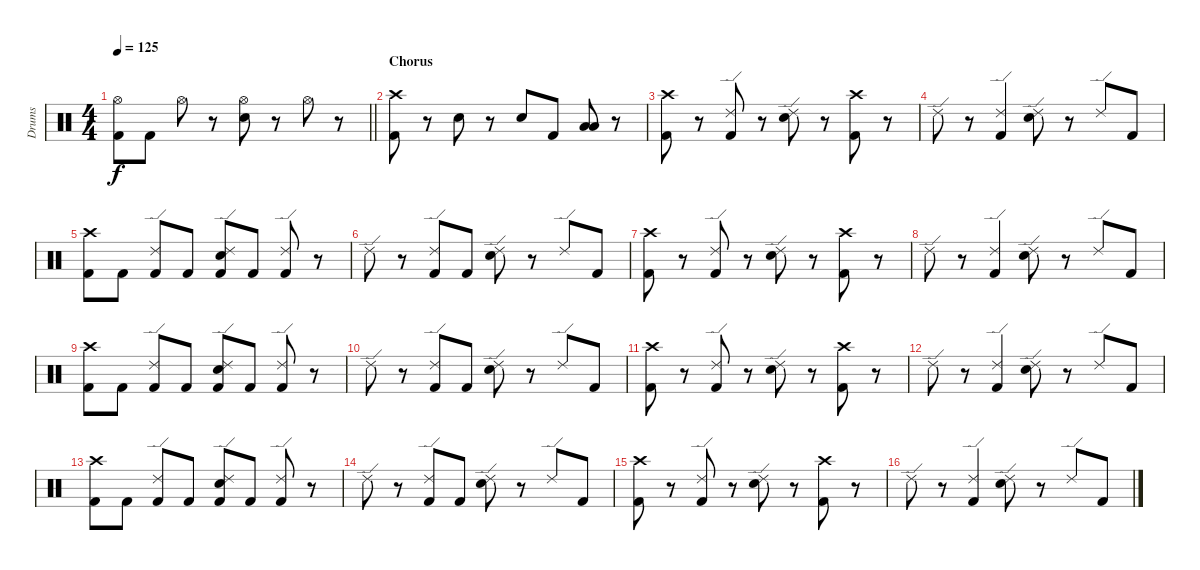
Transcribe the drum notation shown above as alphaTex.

\track ("Drums" "Drums") {instrument percussion}
\staff {score}
\articulation defaults
\ts (4 4)
\tempo 125
\clef neutral
\barLineRight lightlight
\ks c
("Hi-Hat (open)" "Kick (hit) 2").8{dy f} "Kick (hit) 2".8 "Hi-Hat (open)".8 r.8 ("Hi-Hat (open)" "Electric Snare (hit)").8 r.8 "Hi-Hat (open)".8 r.8 |
\section ("" "Chorus")
("Crash high (hit)" "Kick (hit) 2").8 r.8 "Electric Snare (hit)".8 r.8 "Electric Snare (hit)".8 "Kick (hit) 2".8 ("Low Tom (hit)" "Low Tom (hit)").8 r.8 |
("Crash high (hit)" "Kick (hit) 2").8 r.8 ("Ride (edge) 2" "Kick (hit) 2").8 r.8 ("Ride (edge) 2" "Electric Snare (hit)").8 r.8 ("Crash high (hit)" "Kick (hit) 2").8 r.8 |
"Ride (edge) 2".8 r.8 ("Ride (edge) 2" "Kick (hit) 2").4 ("Ride (edge) 2" "Electric Snare (hit)").8 r.8 "Ride (edge) 2".8 "Kick (hit) 2".8 |
("Crash high (hit)" "Kick (hit) 2").8 "Kick (hit) 2".8 ("Ride (edge) 2" "Kick (hit) 2").8 "Kick (hit) 2".8 ("Ride (edge) 2" "Electric Snare (hit)" "Kick (hit) 2").8 "Kick (hit) 2".8 ("Ride (edge) 2" "Kick (hit) 2").8 r.8 |
"Ride (edge) 2".8 r.8 ("Ride (edge) 2" "Kick (hit) 2").8 "Kick (hit) 2".8 ("Ride (edge) 2" "Electric Snare (hit)").8 r.8 "Ride (edge) 2".8 "Kick (hit) 2".8 |
("Crash high (hit)" "Kick (hit) 2").8 r.8 ("Ride (edge) 2" "Kick (hit) 2").8 r.8 ("Ride (edge) 2" "Electric Snare (hit)").8 r.8 ("Crash high (hit)" "Kick (hit) 2").8 r.8 |
"Ride (edge) 2".8 r.8 ("Ride (edge) 2" "Kick (hit) 2").4 ("Ride (edge) 2" "Electric Snare (hit)").8 r.8 "Ride (edge) 2".8 "Kick (hit) 2".8 |
("Crash high (hit)" "Kick (hit) 2").8 "Kick (hit) 2".8 ("Ride (edge) 2" "Kick (hit) 2").8 "Kick (hit) 2".8 ("Ride (edge) 2" "Electric Snare (hit)" "Kick (hit) 2").8 "Kick (hit) 2".8 ("Ride (edge) 2" "Kick (hit) 2").8 r.8 |
"Ride (edge) 2".8 r.8 ("Ride (edge) 2" "Kick (hit) 2").8 "Kick (hit) 2".8 ("Ride (edge) 2" "Electric Snare (hit)").8 r.8 "Ride (edge) 2".8 "Kick (hit) 2".8 |
("Crash high (hit)" "Kick (hit) 2").8 r.8 ("Ride (edge) 2" "Kick (hit) 2").8 r.8 ("Ride (edge) 2" "Electric Snare (hit)").8 r.8 ("Crash high (hit)" "Kick (hit) 2").8 r.8 |
"Ride (edge) 2".8 r.8 ("Ride (edge) 2" "Kick (hit) 2").4 ("Ride (edge) 2" "Electric Snare (hit)").8 r.8 "Ride (edge) 2".8 "Kick (hit) 2".8 |
("Crash high (hit)" "Kick (hit) 2").8 "Kick (hit) 2".8 ("Ride (edge) 2" "Kick (hit) 2").8 "Kick (hit) 2".8 ("Ride (edge) 2" "Electric Snare (hit)" "Kick (hit) 2").8 "Kick (hit) 2".8 ("Ride (edge) 2" "Kick (hit) 2").8 r.8 |
"Ride (edge) 2".8 r.8 ("Ride (edge) 2" "Kick (hit) 2").8 "Kick (hit) 2".8 ("Ride (edge) 2" "Electric Snare (hit)").8 r.8 "Ride (edge) 2".8 "Kick (hit) 2".8 |
("Crash high (hit)" "Kick (hit) 2").8 r.8 ("Ride (edge) 2" "Kick (hit) 2").8 r.8 ("Ride (edge) 2" "Electric Snare (hit)").8 r.8 ("Crash high (hit)" "Kick (hit) 2").8 r.8 |
"Ride (edge) 2".8 r.8 ("Ride (edge) 2" "Kick (hit) 2").4 ("Ride (edge) 2" "Electric Snare (hit)").8 r.8 "Ride (edge) 2".8 "Kick (hit) 2".8
